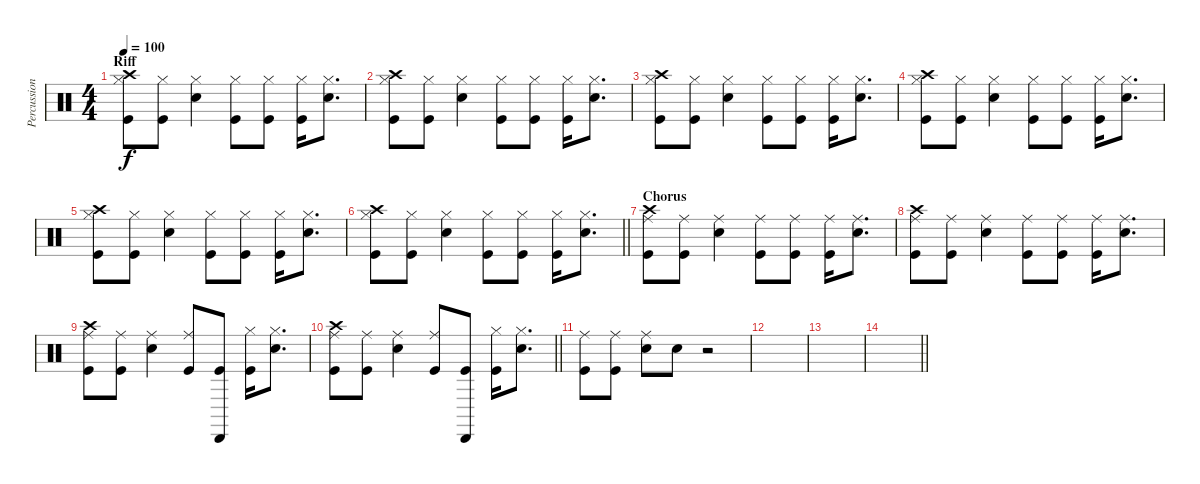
\track ("Percussion" "Percussion") {instrument percussion}
\staff {score}
\articulation defaults
\ts (4 4)
\section ("" "Riff")
\tempo 100
\clef neutral
\ks c
("Crash high (hit)" "Kick (hit)" "Hi-Hat (closed)").8{dy f} ("Kick (hit)" "Hi-Hat (closed)").8 ("Snare (hit) 2" "Hi-Hat (closed)").4 ("Kick (hit)" "Hi-Hat (closed)").8 ("Kick (hit)" "Hi-Hat (closed)").8 ("Kick (hit)" "Hi-Hat (closed)").16 ("Snare (hit) 2" "Hi-Hat (closed)").8{d} |
("Crash high (hit)" "Kick (hit)" "Hi-Hat (closed)").8 ("Kick (hit)" "Hi-Hat (closed)").8 ("Snare (hit) 2" "Hi-Hat (closed)").4 ("Kick (hit)" "Hi-Hat (closed)").8 ("Kick (hit)" "Hi-Hat (closed)").8 ("Kick (hit)" "Hi-Hat (closed)").16 ("Snare (hit) 2" "Hi-Hat (closed)").8{d} |
("Crash high (hit)" "Kick (hit)" "Hi-Hat (closed)").8 ("Kick (hit)" "Hi-Hat (closed)").8 ("Snare (hit) 2" "Hi-Hat (closed)").4 ("Kick (hit)" "Hi-Hat (closed)").8 ("Kick (hit)" "Hi-Hat (closed)").8 ("Kick (hit)" "Hi-Hat (closed)").16 ("Snare (hit) 2" "Hi-Hat (closed)").8{d} |
("Crash high (hit)" "Kick (hit)" "Hi-Hat (closed)").8 ("Kick (hit)" "Hi-Hat (closed)").8 ("Snare (hit) 2" "Hi-Hat (closed)").4 ("Kick (hit)" "Hi-Hat (closed)").8 ("Kick (hit)" "Hi-Hat (closed)").8 ("Kick (hit)" "Hi-Hat (closed)").16 ("Snare (hit) 2" "Hi-Hat (closed)").8{d} |
("Crash high (hit)" "Kick (hit)" "Hi-Hat (closed)").8 ("Kick (hit)" "Hi-Hat (closed)").8 ("Snare (hit) 2" "Hi-Hat (closed)").4 ("Kick (hit)" "Hi-Hat (closed)").8 ("Kick (hit)" "Hi-Hat (closed)").8 ("Kick (hit)" "Hi-Hat (closed)").16 ("Snare (hit) 2" "Hi-Hat (closed)").8{d} |
\barLineRight lightlight
("Crash high (hit)" "Kick (hit)" "Hi-Hat (closed)").8 ("Kick (hit)" "Hi-Hat (closed)").8 ("Snare (hit) 2" "Hi-Hat (closed)").4 ("Kick (hit)" "Hi-Hat (closed)").8 ("Kick (hit)" "Hi-Hat (closed)").8 ("Kick (hit)" "Hi-Hat (closed)").16 ("Snare (hit) 2" "Hi-Hat (closed)").8{d} |
\section ("" "Chorus")
("Crash high (hit)" "Kick (hit)" "Ride (middle)").8 ("Kick (hit)" "Ride (middle)").8 ("Snare (hit) 2" "Ride (middle)").4 ("Kick (hit)" "Ride (middle)").8 ("Kick (hit)" "Ride (middle)").8 ("Kick (hit)" "Ride (middle)").16 ("Snare (hit) 2" "Ride (middle)").8{d} |
("Crash high (hit)" "Kick (hit)" "Ride (middle)").8 ("Kick (hit)" "Ride (middle)").8 ("Snare (hit) 2" "Ride (middle)").4 ("Kick (hit)" "Ride (middle)").8 ("Kick (hit)" "Ride (middle)").8 ("Kick (hit)" "Ride (middle)").16 ("Snare (hit) 2" "Ride (middle)").8{d} |
("Crash high (hit)" "Kick (hit)" "Ride (middle)").8 ("Kick (hit)" "Ride (middle)").8 ("Snare (hit) 2" "Ride (middle)").4 ("Kick (hit)" "Ride (middle)").8 ("Kick (hit)" "Cabasa (hit)").8 ("Kick (hit)" "Hi-Hat (closed)").16 ("Snare (hit) 2" "Hi-Hat (closed)").8{d} |
\barLineRight lightlight
("Crash high (hit)" "Kick (hit)" "Ride (middle)").8 ("Kick (hit)" "Ride (middle)").8 ("Snare (hit) 2" "Ride (middle)").4 ("Kick (hit)" "Ride (middle)").8 ("Kick (hit)" "Cabasa (hit)").8 ("Kick (hit)" "Hi-Hat (closed)").16 ("Snare (hit) 2" "Hi-Hat (closed)").8{d} |
("Kick (hit)" "Ride (middle)").8 ("Kick (hit)" "Ride (middle)").8 ("Snare (hit) 2" "Ride (middle)").8 "Snare (hit) 2".8 r.2 |
|
|
\barLineRight lightlight
